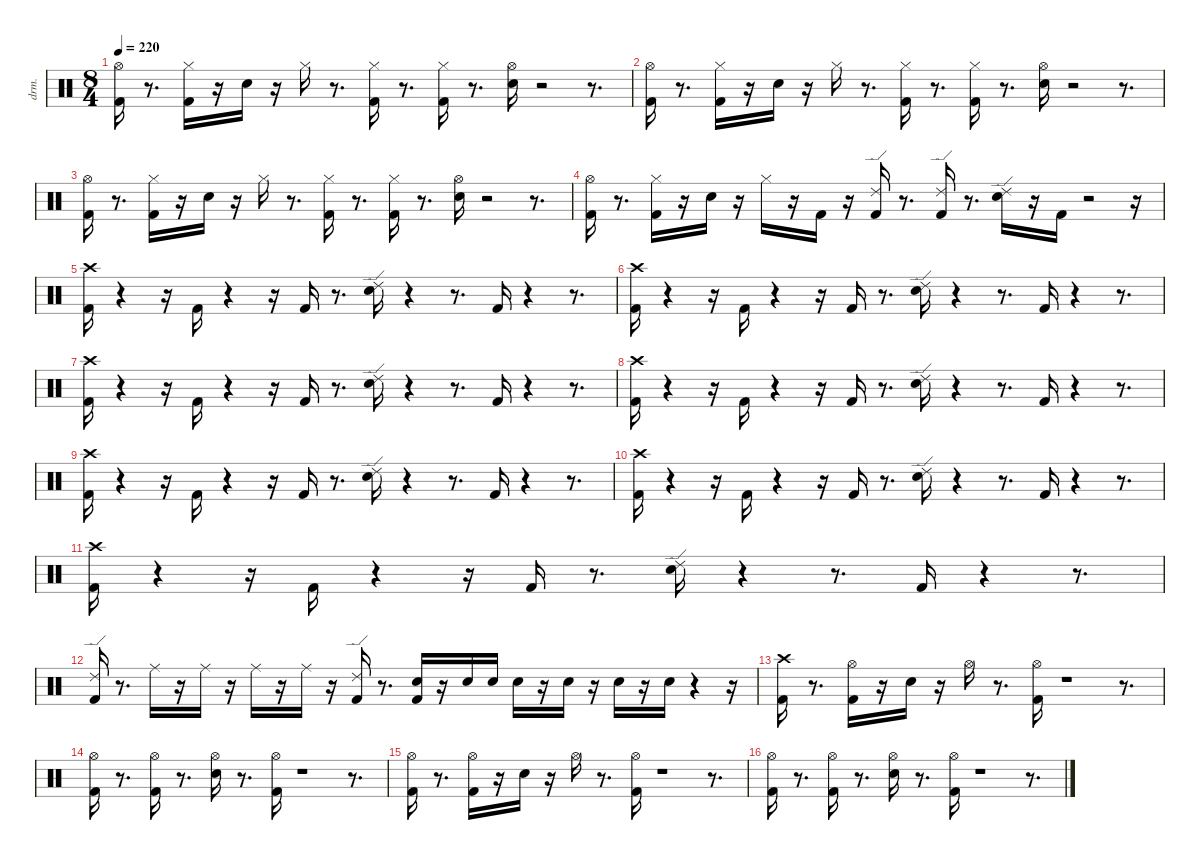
\defaultSystemsLayout 4
\hideDynamics
\bracketExtendMode nobrackets
\otherSystemsTrackNameOrientation horizontal
\track ("EZdrummer 3" "drm.") {instrument percussion}
\staff {score}
\articulation defaults
\ts (8 4)
\tempo 220
\clef neutral
\ks c
("Kick (hit) 2" "Hi-Hat (open)"{acc #}).16{dy fff beam Down} r.8{d beam Down} ("Kick (hit) 2" "Hi-Hat (closed)"{acc #}).16{dy f beam Down} r.16{beam Down} "Snare (hit) 2".16{dy ff beam Down} r.16{beam Down} "Hi-Hat (closed)"{acc #}.16{beam Down} r.8{d beam Down} ("Kick (hit) 2" "Hi-Hat (closed)"{acc #}).16{beam Down} r.8{d beam Down} ("Kick (hit) 2" "Hi-Hat (closed)"{acc #}).16{dy f beam Down} r.8{d beam Down} ("Snare (hit) 2" "Hi-Hat (open)"{acc #}).16{dy ff beam Down} r.2{beam Down} r.8{d beam Down} |
("Kick (hit) 2" "Hi-Hat (open)"{acc #}).16{dy fff beam Down} r.8{d beam Down} ("Kick (hit) 2" "Hi-Hat (closed)"{acc #}).16{dy f beam Down} r.16{beam Down} "Snare (hit) 2".16{dy ff beam Down} r.16{beam Down} "Hi-Hat (closed)"{acc #}.16{beam Down} r.8{d beam Down} ("Kick (hit) 2" "Hi-Hat (closed)"{acc #}).16{beam Down} r.8{d beam Down} ("Kick (hit) 2" "Hi-Hat (closed)"{acc #}).16{dy f beam Down} r.8{d beam Down} ("Snare (hit) 2" "Hi-Hat (open)"{acc #}).16{dy ff beam Down} r.2{beam Down} r.8{d beam Down} |
("Kick (hit) 2" "Hi-Hat (open)"{acc #}).16{dy fff beam Down} r.8{d beam Down} ("Kick (hit) 2" "Hi-Hat (closed)"{acc #}).16{dy f beam Down} r.16{beam Down} "Snare (hit) 2".16{dy ff beam Down} r.16{beam Down} "Hi-Hat (closed)"{acc #}.16{beam Down} r.8{d beam Down} ("Kick (hit) 2" "Hi-Hat (closed)"{acc #}).16{beam Down} r.8{d beam Down} ("Kick (hit) 2" "Hi-Hat (closed)"{acc #}).16{dy f beam Down} r.8{d beam Down} ("Snare (hit) 2" "Hi-Hat (open)"{acc #}).16{dy ff beam Down} r.2{beam Down} r.8{d beam Down} |
("Kick (hit) 2" "Hi-Hat (open)"{acc #}).16{dy fff beam Down} r.8{d beam Down} ("Kick (hit) 2" "Hi-Hat (closed)"{acc #}).16{dy f beam Down} r.16{beam Down} "Snare (hit) 2".16{dy ff beam Down} r.16{beam Down} "Hi-Hat (closed)"{acc #}.16{beam Down} r.16{beam Down} "Kick (hit) 2".16{dy mp beam Up} r.16{beam Up} ("Kick (hit) 2" "Ride (edge) 2").16{dy ff beam Up} r.8{d beam Up} ("Kick (hit) 2" "Ride (edge) 2").16{dy f beam Up} r.8{d beam Up} ("Snare (hit) 2" "Ride (edge) 2").16{dy ff beam Down} r.16{beam Down} "Kick (hit) 2".16{dy mp beam Up} r.2{beam Up} r.16{beam Up} |
("Kick (hit) 2" "Crash high (hit)"{acc #}).16{dy fff beam Down} r.4{beam Down} r.16{beam Down} "Kick (hit) 2".16{dy f beam Up} r.4{beam Up} r.16{beam Up} "Kick (hit) 2".16{dy ff beam Up} r.8{d beam Up} ("Snare (hit) 2" "Ride (edge) 2").16{beam Down} r.4{beam Down} r.8{d beam Down} "Kick (hit) 2".16{dy mf beam Up} r.4{beam Up} r.8{d beam Up} |
("Kick (hit) 2" "Crash high (hit)"{acc #}).16{dy fff beam Down} r.4{beam Down} r.16{beam Down} "Kick (hit) 2".16{dy f beam Up} r.4{beam Up} r.16{beam Up} "Kick (hit) 2".16{dy ff beam Up} r.8{d beam Up} ("Snare (hit) 2" "Ride (edge) 2").16{beam Down} r.4{beam Down} r.8{d beam Down} "Kick (hit) 2".16{dy mf beam Up} r.4{beam Up} r.8{d beam Up} |
("Kick (hit) 2" "Crash high (hit)"{acc #}).16{dy fff beam Down} r.4{beam Down} r.16{beam Down} "Kick (hit) 2".16{dy f beam Up} r.4{beam Up} r.16{beam Up} "Kick (hit) 2".16{dy ff beam Up} r.8{d beam Up} ("Snare (hit) 2" "Ride (edge) 2").16{beam Down} r.4{beam Down} r.8{d beam Down} "Kick (hit) 2".16{dy mf beam Up} r.4{beam Up} r.8{d beam Up} |
("Kick (hit) 2" "Crash high (hit)"{acc #}).16{dy fff beam Down} r.4{beam Down} r.16{beam Down} "Kick (hit) 2".16{dy f beam Up} r.4{beam Up} r.16{beam Up} "Kick (hit) 2".16{dy ff beam Up} r.8{d beam Up} ("Snare (hit) 2" "Ride (edge) 2").16{beam Down} r.4{beam Down} r.8{d beam Down} "Kick (hit) 2".16{dy mf beam Up} r.4{beam Up} r.8{d beam Up} |
("Kick (hit) 2" "Crash high (hit)"{acc #}).16{dy fff beam Down} r.4{beam Down} r.16{beam Down} "Kick (hit) 2".16{dy f beam Up} r.4{beam Up} r.16{beam Up} "Kick (hit) 2".16{dy ff beam Up} r.8{d beam Up} ("Snare (hit) 2" "Ride (edge) 2").16{beam Down} r.4{beam Down} r.8{d beam Down} "Kick (hit) 2".16{dy mf beam Up} r.4{beam Up} r.8{d beam Up} |
("Kick (hit) 2" "Crash high (hit)"{acc #}).16{dy fff beam Down} r.4{beam Down} r.16{beam Down} "Kick (hit) 2".16{dy f beam Up} r.4{beam Up} r.16{beam Up} "Kick (hit) 2".16{dy ff beam Up} r.8{d beam Up} ("Snare (hit) 2" "Ride (edge) 2").16{beam Down} r.4{beam Down} r.8{d beam Down} "Kick (hit) 2".16{dy mf beam Up} r.4{beam Up} r.8{d beam Up} |
("Kick (hit) 2" "Crash high (hit)"{acc #}).16{dy fff beam Down} r.4{beam Down} r.16{beam Down} "Kick (hit) 2".16{dy f beam Up} r.4{beam Up} r.16{beam Up} "Kick (hit) 2".16{dy ff beam Up} r.8{d beam Up} ("Snare (hit) 2" "Ride (edge) 2").16{beam Down} r.4{beam Down} r.8{d beam Down} "Kick (hit) 2".16{dy mf beam Up} r.4{beam Up} r.8{d beam Up} |
("Kick (hit) 2" "Ride (edge) 2").16{dy fff beam Up} r.8{d beam Up} "Ride (middle)"{acc #}.16{dy mf beam Down} r.16{beam Down} "Ride (middle)"{acc #}.16{dy ppp beam Down} r.16{beam Down} "Ride (middle)"{acc #}.16{dy mp beam Down} r.16{beam Down} "Ride (middle)"{acc #}.16{dy ppp beam Down} r.16{beam Down} ("Kick (hit) 2" "Ride (edge) 2").16{dy ff beam Up} r.8{d beam Up} ("Kick (hit) 2" "Snare (hit) 2").16{beam Up} r.16{beam Up} "Snare (hit) 2".16{dy p beam Down} "Snare (hit) 2".16{dy pp beam Down} "Snare (hit) 2".16{dy mp beam Down} r.16{beam Down} "Snare (hit) 2".16{dy mf beam Down} r.16{beam Down} "Snare (hit) 2".16{dy ff beam Down} r.16{beam Down} "Snare (hit) 2".16{dy fff beam Down} r.4{beam Down} r.16{beam Down} |
("Kick (hit) 2" "Crash high (hit)"{acc #}).16{beam Down} r.8{d beam Down} ("Kick (hit) 2" "Hi-Hat (open)"{acc #}).16{dy ff beam Down} r.16{beam Down} "Snare (hit) 2".16{beam Down} r.16{beam Down} "Hi-Hat (open)"{acc #}.16{beam Down} r.8{d beam Down} ("Kick (hit) 2" "Hi-Hat (open)"{acc #}).16{beam Down} r.1{beam Down} r.8{d beam Down} |
("Kick (hit) 2" "Hi-Hat (open)"{acc #}).16{beam Down} r.8{d beam Down} ("Kick (hit) 2" "Hi-Hat (open)"{acc #}).16{beam Down} r.8{d beam Down} ("Snare (hit) 2" "Hi-Hat (open)"{acc #}).16{beam Down} r.8{d beam Down} ("Kick (hit) 2" "Hi-Hat (open)"{acc #}).16{dy mf beam Down} r.1{beam Down} r.8{d beam Down} |
("Kick (hit) 2" "Hi-Hat (open)"{acc #}).16{dy fff beam Down} r.8{d beam Down} ("Kick (hit) 2" "Hi-Hat (open)"{acc #}).16{dy ff beam Down} r.16{beam Down} "Snare (hit) 2".16{beam Down} r.16{beam Down} "Hi-Hat (open)"{acc #}.16{beam Down} r.8{d beam Down} ("Kick (hit) 2" "Hi-Hat (open)"{acc #}).16{beam Down} r.1{beam Down} r.8{d beam Down} |
("Kick (hit) 2" "Hi-Hat (open)"{acc #}).16{beam Down} r.8{d beam Down} ("Kick (hit) 2" "Hi-Hat (open)"{acc #}).16{beam Down} r.8{d beam Down} ("Snare (hit) 2" "Hi-Hat (open)"{acc #}).16{beam Down} r.8{d beam Down} ("Kick (hit) 2" "Hi-Hat (open)"{acc #}).16{dy mf beam Down} r.1{beam Down} r.8{d beam Down}
